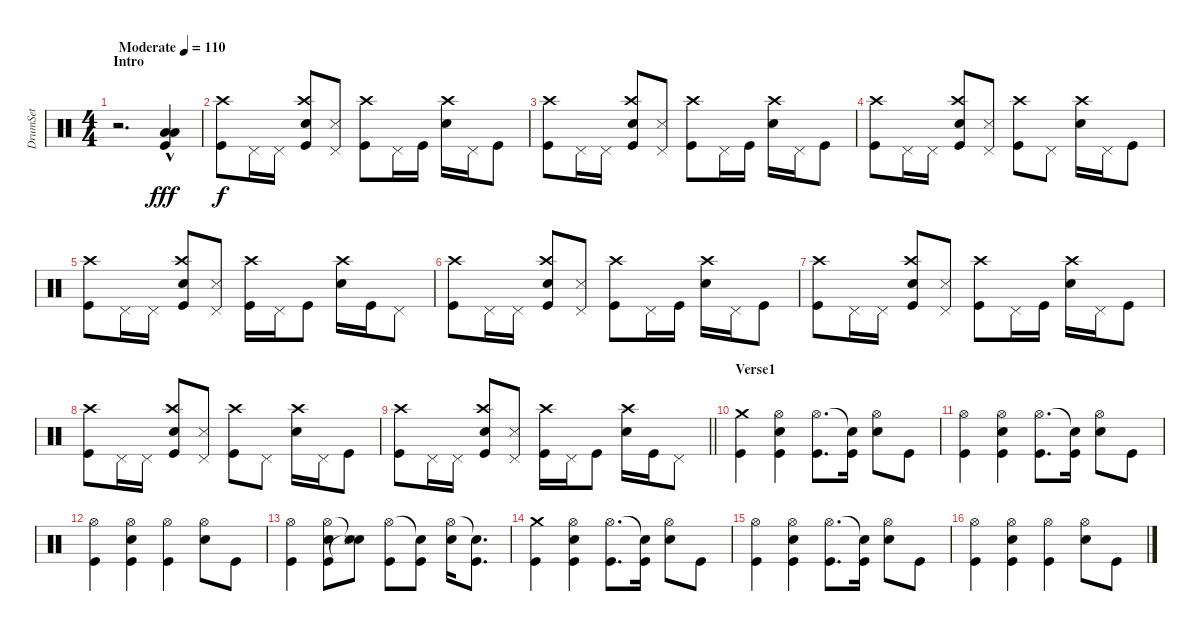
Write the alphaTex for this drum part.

\track ("DrumSet" "DrumSet") {instrument percussion}
\staff {score}
\articulation defaults
\ts (4 4)
\section ("" "Intro")
\tempo (110 "Moderate")
\clef neutral
\ks c
r.2{d dy fff} ("Low Tom (hit)"{hac} "Low Tom (hit)"{hac} "Kick (hit)").4 |
("Crash high (hit)" "Kick (hit)").8{dy f} "Pedal Hi-Hat (hit)".16 "Pedal Hi-Hat (hit)".16 ("Crash high (hit)" "Snare (hit) 2" "Kick (hit)").8 ("Snare (side stick) 3" "Pedal Hi-Hat (hit)").8 ("Crash high (hit)" "Kick (hit)").8 "Pedal Hi-Hat (hit)".16 "Kick (hit)".16 ("Crash high (hit)" "Snare (hit) 2").16 "Pedal Hi-Hat (hit)".16 "Kick (hit)".8 |
("Crash high (hit)" "Kick (hit)").8 "Pedal Hi-Hat (hit)".16 "Pedal Hi-Hat (hit)".16 ("Crash high (hit)" "Snare (hit) 2" "Kick (hit)").8 ("Snare (side stick) 3" "Pedal Hi-Hat (hit)").8 ("Crash high (hit)" "Kick (hit)").8 "Pedal Hi-Hat (hit)".16 "Kick (hit)".16 ("Crash high (hit)" "Snare (hit) 2").16 "Pedal Hi-Hat (hit)".16 "Kick (hit)".8 |
("Crash high (hit)" "Kick (hit)").8 "Pedal Hi-Hat (hit)".16 "Pedal Hi-Hat (hit)".16 ("Crash high (hit)" "Snare (hit) 2" "Kick (hit)").8 ("Snare (side stick) 3" "Pedal Hi-Hat (hit)").8 ("Crash high (hit)" "Kick (hit)").8 "Pedal Hi-Hat (hit)".8 ("Crash high (hit)" "Snare (hit) 2").16 "Pedal Hi-Hat (hit)".16 "Kick (hit)".8 |
("Crash high (hit)" "Kick (hit)").8 "Pedal Hi-Hat (hit)".16 "Pedal Hi-Hat (hit)".16 ("Crash high (hit)" "Snare (hit) 2" "Kick (hit)").8 ("Snare (side stick) 3" "Pedal Hi-Hat (hit)").8 ("Crash high (hit)" "Kick (hit)").16 "Pedal Hi-Hat (hit)".16 "Kick (hit)".8 ("Crash high (hit)" "Snare (hit) 2").16 "Kick (hit)".16 "Pedal Hi-Hat (hit)".8 |
("Crash high (hit)" "Kick (hit)").8 "Pedal Hi-Hat (hit)".16 "Pedal Hi-Hat (hit)".16 ("Crash high (hit)" "Snare (hit) 2" "Kick (hit)").8 ("Snare (side stick) 3" "Pedal Hi-Hat (hit)").8 ("Crash high (hit)" "Kick (hit)").8 "Pedal Hi-Hat (hit)".16 "Kick (hit)".16 ("Crash high (hit)" "Snare (hit) 2").16 "Pedal Hi-Hat (hit)".16 "Kick (hit)".8 |
("Crash high (hit)" "Kick (hit)").8 "Pedal Hi-Hat (hit)".16 "Pedal Hi-Hat (hit)".16 ("Crash high (hit)" "Snare (hit) 2" "Kick (hit)").8 ("Snare (side stick) 3" "Pedal Hi-Hat (hit)").8 ("Crash high (hit)" "Kick (hit)").8 "Pedal Hi-Hat (hit)".16 "Kick (hit)".16 ("Crash high (hit)" "Snare (hit) 2").16 "Pedal Hi-Hat (hit)".16 "Kick (hit)".8 |
("Crash high (hit)" "Kick (hit)").8 "Pedal Hi-Hat (hit)".16 "Pedal Hi-Hat (hit)".16 ("Crash high (hit)" "Snare (hit) 2" "Kick (hit)").8 ("Snare (side stick) 3" "Pedal Hi-Hat (hit)").8 ("Crash high (hit)" "Kick (hit)").8 "Pedal Hi-Hat (hit)".8 ("Crash high (hit)" "Snare (hit) 2").16 "Pedal Hi-Hat (hit)".16 "Kick (hit)".8 |
\barLineRight lightlight
("Crash high (hit)" "Kick (hit)").8 "Pedal Hi-Hat (hit)".16 "Pedal Hi-Hat (hit)".16 ("Crash high (hit)" "Snare (hit) 2" "Kick (hit)").8 ("Snare (side stick) 3" "Pedal Hi-Hat (hit)").8 ("Crash high (hit)" "Kick (hit)").16 "Pedal Hi-Hat (hit)".16 "Kick (hit)".8 ("Crash high (hit)" "Snare (hit) 2").16 "Kick (hit)".16 "Pedal Hi-Hat (hit)".8 |
\section ("" "Verse1")
("Crash medium (hit)" "Kick (hit)").4 ("Hi-Hat (open)" "Snare (hit) 2" "Kick (hit)").4 ("Hi-Hat (open)" "Kick (hit)").8{d} ("Snare (hit)"{t} "Kick (hit)").16 ("Hi-Hat (open)" "Snare (hit) 2").8 "Kick (hit)".8 |
("Hi-Hat (open)" "Kick (hit)").4 ("Hi-Hat (open)" "Snare (hit) 2" "Kick (hit)").4 ("Hi-Hat (open)" "Kick (hit)").8{d} ("Snare (hit)"{t} "Kick (hit)").16 ("Hi-Hat (open)" "Snare (hit) 2").8 "Kick (hit)".8 |
("Hi-Hat (open)" "Kick (hit)").4 ("Hi-Hat (open)" "Snare (hit) 2" "Kick (hit)").4 ("Hi-Hat (open)" "Kick (hit)").4 ("Hi-Hat (open)" "Snare (hit) 2").8 "Kick (hit)".8 |
("Hi-Hat (open)" "Kick (hit)").4 ("Hi-Hat (open)" "Snare (hit) 2" "Kick (hit)").8 ("Snare (hit)"{t} "Snare (side stick) 3" "Snare (hit)"{t}).8 ("Hi-Hat (open)" "Kick (hit)").8 ("Snare (hit)"{t} "Kick (hit)").8 ("Hi-Hat (open)" "Snare (hit) 2").16 ("Snare (hit)"{t} "Kick (hit)").8{d} |
("Crash medium (hit)" "Kick (hit)").4 ("Hi-Hat (open)" "Snare (hit) 2" "Kick (hit)").4 ("Hi-Hat (open)" "Kick (hit)").8{d} ("Snare (hit)"{t} "Kick (hit)").16 ("Hi-Hat (open)" "Snare (hit) 2").8 "Kick (hit)".8 |
("Hi-Hat (open)" "Kick (hit)").4 ("Hi-Hat (open)" "Snare (hit) 2" "Kick (hit)").4 ("Hi-Hat (open)" "Kick (hit)").8{d} ("Snare (hit)"{t} "Kick (hit)").16 ("Hi-Hat (open)" "Snare (hit) 2").8 "Kick (hit)".8 |
("Hi-Hat (open)" "Kick (hit)").4 ("Hi-Hat (open)" "Snare (hit) 2" "Kick (hit)").4 ("Hi-Hat (open)" "Kick (hit)").4 ("Hi-Hat (open)" "Snare (hit) 2").8 "Kick (hit)".8
